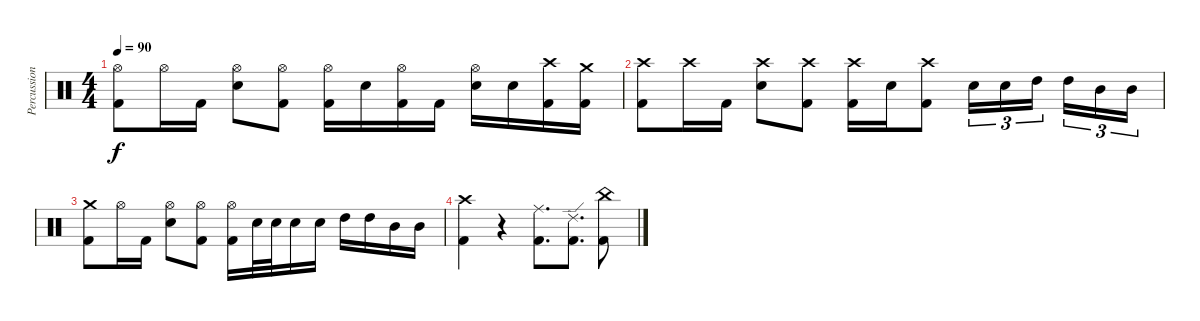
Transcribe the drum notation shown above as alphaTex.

\track ("Percussion" "Percussion") {instrument percussion}
\staff {score}
\articulation defaults
\ts (4 4)
\tempo 90
\clef neutral
\ks c
("Hi-Hat (open)" "Kick (hit) 2").8{dy f} "Hi-Hat (open)".16 "Kick (hit) 2".16 ("Hi-Hat (open)" "Snare (hit) 2").8 ("Hi-Hat (open)" "Kick (hit) 2").8 ("Hi-Hat (open)" "Kick (hit) 2").16 "Snare (hit) 2".16 ("Hi-Hat (open)" "Kick (hit) 2").16 "Kick (hit) 2".16 ("Hi-Hat (open)" "Snare (hit) 2").16 "Snare (hit) 2".16 ("Crash high (hit)" "Kick (hit) 2").16 ("Crash medium (hit)" "Kick (hit) 2").16 |
("Crash high (hit)" "Kick (hit) 2").8 "Crash high (hit)".16 "Kick (hit) 2".16 ("Crash high (hit)" "Snare (hit) 2").8 ("Crash high (hit)" "Kick (hit) 2").8 ("Crash high (hit)" "Kick (hit) 2").16 "Snare (hit) 2".16 ("Crash high (hit)" "Kick (hit) 2").8 "Snare (hit) 2".16{tu (3 2)} "Snare (hit) 2".16{tu (3 2)} "High Tom (hit)".16{tu (3 2) beam splitsecondary} "High Tom (hit)".16{tu (3 2)} "Mid Tom (hit)".16{tu (3 2)} "Mid Tom (hit)".16{tu (3 2)} |
("Crash medium (hit)" "Kick (hit) 2").8 "Hi-Hat (open)".16 "Kick (hit) 2".16 ("Hi-Hat (open)" "Snare (hit) 2").8 ("Hi-Hat (open)" "Kick (hit) 2").8 ("Hi-Hat (open)" "Kick (hit) 2").16 "Snare (hit) 2".32 "Snare (hit) 2".32 "Snare (hit) 2".16 "Snare (hit) 2".16 "High Tom (hit)".16 "High Tom (hit)".16 "Mid Tom (hit)".16 "Mid Tom (hit)".16 |
("Crash high (hit)" "Kick (hit) 2").4 r.4 ("Ride (middle)" "Kick (hit) 2").8{d} ("Ride (edge) 2" "Kick (hit) 2").8{d} ("China (hit)" "Kick (hit) 2").8
